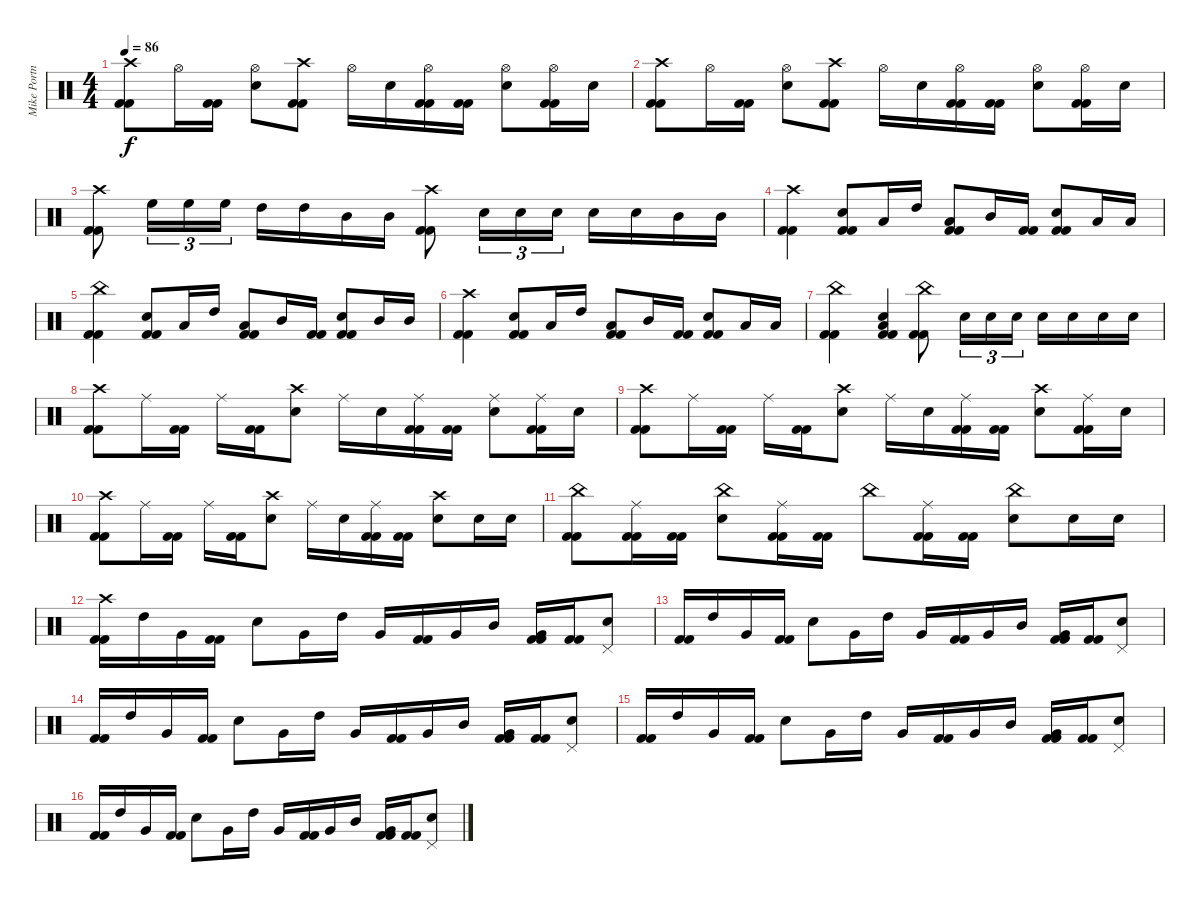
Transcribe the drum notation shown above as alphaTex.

\track ("Mike Portnoy - Drum" "Mike Portn") {instrument percussion}
\staff {score}
\articulation defaults
\ts (4 4)
\tempo 86
\clef neutral
\ks c
("Crash high (hit)" "Kick (hit) 2" "Kick (hit) 2").8{dy f} "Hi-Hat (open)".16 ("Kick (hit) 2" "Kick (hit) 2").16 ("Hi-Hat (open)" "Snare (hit) 2").8 ("Crash high (hit)" "Kick (hit) 2" "Kick (hit) 2").8 "Hi-Hat (open)".16 "Snare (hit) 2".16 ("Hi-Hat (open)" "Kick (hit) 2" "Kick (hit) 2").16 ("Kick (hit) 2" "Kick (hit) 2").16 ("Hi-Hat (open)" "Snare (hit) 2").8 ("Hi-Hat (open)" "Kick (hit) 2" "Kick (hit) 2").16 "Snare (hit) 2".16 |
("Crash high (hit)" "Kick (hit) 2" "Kick (hit) 2").8 "Hi-Hat (open)".16 ("Kick (hit) 2" "Kick (hit) 2").16 ("Hi-Hat (open)" "Snare (hit) 2").8 ("Crash high (hit)" "Kick (hit) 2" "Kick (hit) 2").8 "Hi-Hat (open)".16 "Snare (hit) 2".16 ("Hi-Hat (open)" "Kick (hit) 2" "Kick (hit) 2").16 ("Kick (hit) 2" "Kick (hit) 2").16 ("Hi-Hat (open)" "Snare (hit) 2").8 ("Hi-Hat (open)" "Kick (hit) 2" "Kick (hit) 2").16 "Snare (hit) 2".16 |
("Crash high (hit)" "Kick (hit) 2" "Kick (hit) 2").8 "High Floor Tom (hit)".16{tu (3 2)} "High Floor Tom (hit)".16{tu (3 2)} "High Floor Tom (hit)".16{tu (3 2)} "High Tom (hit)".16 "High Tom (hit)".16 "Mid Tom (hit)".16 "Mid Tom (hit)".16 ("Crash high (hit)" "Kick (hit) 2" "Kick (hit) 2").8 "Snare (hit) 2".16{tu (3 2)} "Snare (hit) 2".16{tu (3 2)} "Snare (hit) 2".16{tu (3 2)} "Snare (hit) 2".16 "Snare (hit) 2".16 "Mid Tom (hit)".16 "Mid Tom (hit)".16 |
("Crash high (hit)" "Kick (hit) 2" "Kick (hit) 2").4 ("Snare (hit) 2" "Kick (hit) 2" "Kick (hit) 2").8 "Low Tom (hit)".16 "High Tom (hit)".16 ("Low Tom (hit)" "Kick (hit) 2" "Kick (hit) 2").8 "Mid Tom (hit)".16 ("Kick (hit) 2" "Kick (hit) 2").16 ("Snare (hit) 2" "Kick (hit) 2" "Kick (hit) 2").8 "Low Tom (hit)".16 "Low Tom (hit)".16 |
("China (hit)" "Kick (hit) 2" "Kick (hit) 2").4 ("Snare (hit) 2" "Kick (hit) 2" "Kick (hit) 2").8 "Low Tom (hit)".16 "High Tom (hit)".16 ("Low Tom (hit)" "Kick (hit) 2" "Kick (hit) 2").8 "Mid Tom (hit)".16 ("Kick (hit) 2" "Kick (hit) 2").16 ("Snare (hit) 2" "Kick (hit) 2" "Kick (hit) 2").8 "Mid Tom (hit)".16 "Mid Tom (hit)".16 |
("Crash high (hit)" "Kick (hit) 2" "Kick (hit) 2").4 ("Snare (hit) 2" "Kick (hit) 2" "Kick (hit) 2").8 "Low Tom (hit)".16 "High Tom (hit)".16 ("Low Tom (hit)" "Kick (hit) 2" "Kick (hit) 2").8 "Mid Tom (hit)".16 ("Kick (hit) 2" "Kick (hit) 2").16 ("Snare (hit) 2" "Kick (hit) 2" "Kick (hit) 2").8 "Low Tom (hit)".16 "Low Tom (hit)".16 |
("China (hit)" "Kick (hit) 2" "Kick (hit) 2").4 ("Snare (hit) 2" "Low Tom (hit)" "Kick (hit) 2" "Kick (hit) 2").4 ("China (hit)" "Kick (hit) 2" "Kick (hit) 2").8 "Snare (hit) 2".16{tu (3 2)} "Snare (hit) 2".16{tu (3 2)} "Snare (hit) 2".16{tu (3 2)} "Snare (hit) 2".16 "Snare (hit) 2".16 "Snare (hit) 2".16 "Snare (hit) 2".16 |
("Crash high (hit)" "Kick (hit) 2" "Kick (hit) 2").8 "Ride (middle)".16 ("Kick (hit) 2" "Kick (hit) 2").16 "Ride (middle)".16 ("Kick (hit) 2" "Kick (hit) 2").16 ("Crash high (hit)" "Snare (hit) 2").8 "Ride (middle)".16 "Snare (hit) 2".16 ("Ride (middle)" "Kick (hit) 2" "Kick (hit) 2").16 ("Kick (hit) 2" "Kick (hit) 2").16 ("Ride (middle)" "Snare (hit) 2").8 ("Ride (middle)" "Kick (hit) 2" "Kick (hit) 2").16 "Snare (hit) 2".16 |
("Crash high (hit)" "Kick (hit) 2" "Kick (hit) 2").8 "Ride (middle)".16 ("Kick (hit) 2" "Kick (hit) 2").16 "Ride (middle)".16 ("Kick (hit) 2" "Kick (hit) 2").16 ("Crash high (hit)" "Snare (hit) 2").8 "Ride (middle)".16 "Snare (hit) 2".16 ("Ride (middle)" "Kick (hit) 2" "Kick (hit) 2").16 ("Kick (hit) 2" "Kick (hit) 2").16 ("Crash high (hit)" "Snare (hit) 2").8 ("Ride (middle)" "Kick (hit) 2" "Kick (hit) 2").16 "Snare (hit) 2".16 |
("Crash high (hit)" "Kick (hit) 2" "Kick (hit) 2").8 "Ride (middle)".16 ("Kick (hit) 2" "Kick (hit) 2").16 "Ride (middle)".16 ("Kick (hit) 2" "Kick (hit) 2").16 ("Crash high (hit)" "Snare (hit) 2").8 "Ride (middle)".16 "Snare (hit) 2".16 ("Ride (middle)" "Kick (hit) 2" "Kick (hit) 2").16 ("Kick (hit) 2" "Kick (hit) 2").16 ("Crash high (hit)" "Snare (hit) 2").8 "Snare (hit) 2".16 "Snare (hit) 2".16 |
("China (hit)" "Kick (hit) 2" "Kick (hit) 2").8 ("Ride (middle)" "Kick (hit) 2" "Kick (hit) 2").16 ("Kick (hit) 2" "Kick (hit) 2").16 ("China (hit)" "Snare (hit) 2").8 ("Ride (middle)" "Kick (hit) 2" "Kick (hit) 2").16 ("Kick (hit) 2" "Kick (hit) 2").16 "China (hit)".8 ("Ride (middle)" "Kick (hit) 2" "Kick (hit) 2").16 ("Kick (hit) 2" "Kick (hit) 2").16 ("China (hit)" "Snare (hit) 2").8 "Snare (hit) 2".16 "Snare (hit) 2".16 |
("Crash high (hit)" "Kick (hit) 2" "Kick (hit) 2").16 "High Tom (hit)".16 "Very Low Tom (hit)".16 ("Kick (hit) 2" "Kick (hit) 2").16 "Snare (hit) 2".8 "Very Low Tom (hit)".16 "High Tom (hit)".16 "Very Low Tom (hit)".16 ("Kick (hit) 2" "Kick (hit) 2").16 "Very Low Tom (hit)".16 "Mid Tom (hit)".16 ("Very Low Tom (hit)" "Kick (hit) 2" "Kick (hit) 2").16 ("Kick (hit) 2" "Kick (hit) 2").16 ("Pedal Hi-Hat (hit)" "Snare (hit) 2").8 |
("Kick (hit) 2" "Kick (hit) 2").16 "High Tom (hit)".16 "Very Low Tom (hit)".16 ("Kick (hit) 2" "Kick (hit) 2").16 "Snare (hit) 2".8 "Very Low Tom (hit)".16 "High Tom (hit)".16 "Very Low Tom (hit)".16 ("Kick (hit) 2" "Kick (hit) 2").16 "Very Low Tom (hit)".16 "Mid Tom (hit)".16 ("Very Low Tom (hit)" "Kick (hit) 2" "Kick (hit) 2").16 ("Kick (hit) 2" "Kick (hit) 2").16 ("Pedal Hi-Hat (hit)" "Snare (hit) 2").8 |
("Kick (hit) 2" "Kick (hit) 2").16 "High Tom (hit)".16 "Very Low Tom (hit)".16 ("Kick (hit) 2" "Kick (hit) 2").16 "Snare (hit) 2".8 "Very Low Tom (hit)".16 "High Tom (hit)".16 "Very Low Tom (hit)".16 ("Kick (hit) 2" "Kick (hit) 2").16 "Very Low Tom (hit)".16 "Mid Tom (hit)".16 ("Very Low Tom (hit)" "Kick (hit) 2" "Kick (hit) 2").16 ("Kick (hit) 2" "Kick (hit) 2").16 ("Pedal Hi-Hat (hit)" "Snare (hit) 2").8 |
("Kick (hit) 2" "Kick (hit) 2").16 "High Tom (hit)".16 "Very Low Tom (hit)".16 ("Kick (hit) 2" "Kick (hit) 2").16 "Snare (hit) 2".8 "Very Low Tom (hit)".16 "High Tom (hit)".16 "Very Low Tom (hit)".16 ("Kick (hit) 2" "Kick (hit) 2").16 "Very Low Tom (hit)".16 "Mid Tom (hit)".16 ("Very Low Tom (hit)" "Kick (hit) 2" "Kick (hit) 2").16 ("Kick (hit) 2" "Kick (hit) 2").16 ("Pedal Hi-Hat (hit)" "Snare (hit) 2").8 |
("Kick (hit) 2" "Kick (hit) 2").16 "High Tom (hit)".16 "Very Low Tom (hit)".16 ("Kick (hit) 2" "Kick (hit) 2").16 "Snare (hit) 2".8 "Very Low Tom (hit)".16 "High Tom (hit)".16 "Very Low Tom (hit)".16 ("Kick (hit) 2" "Kick (hit) 2").16 "Very Low Tom (hit)".16 "Mid Tom (hit)".16 ("Very Low Tom (hit)" "Kick (hit) 2" "Kick (hit) 2").16 ("Kick (hit) 2" "Kick (hit) 2").16 ("Pedal Hi-Hat (hit)" "Snare (hit) 2").8
